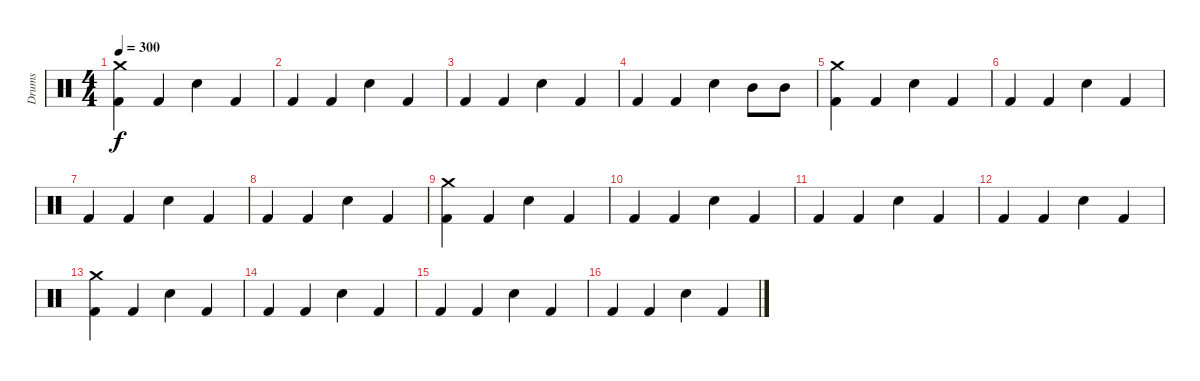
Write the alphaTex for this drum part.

\track ("Drums" "Drums") {instrument percussion}
\staff {score}
\articulation defaults
\ts (4 4)
\tempo 300
\clef neutral
\ks c
("Crash medium (hit)" "Kick (hit) 2").4{dy f} "Kick (hit) 2".4 "Snare (hit) 2".4 "Kick (hit) 2".4 |
"Kick (hit) 2".4 "Kick (hit) 2".4 "Snare (hit) 2".4 "Kick (hit) 2".4 |
"Kick (hit) 2".4 "Kick (hit) 2".4 "Snare (hit) 2".4 "Kick (hit) 2".4 |
"Kick (hit) 2".4 "Kick (hit) 2".4 "Snare (hit) 2".4 "Mid Tom (hit)".8 "Mid Tom (hit)".8 |
("Crash medium (hit)" "Kick (hit) 2").4 "Kick (hit) 2".4 "Snare (hit) 2".4 "Kick (hit) 2".4 |
"Kick (hit) 2".4 "Kick (hit) 2".4 "Snare (hit) 2".4 "Kick (hit) 2".4 |
"Kick (hit) 2".4 "Kick (hit) 2".4 "Snare (hit) 2".4 "Kick (hit) 2".4 |
"Kick (hit) 2".4 "Kick (hit) 2".4 "Snare (hit) 2".4 "Kick (hit) 2".4 |
("Crash medium (hit)" "Kick (hit) 2").4 "Kick (hit) 2".4 "Snare (hit) 2".4 "Kick (hit) 2".4 |
"Kick (hit) 2".4 "Kick (hit) 2".4 "Snare (hit) 2".4 "Kick (hit) 2".4 |
"Kick (hit) 2".4 "Kick (hit) 2".4 "Snare (hit) 2".4 "Kick (hit) 2".4 |
"Kick (hit) 2".4 "Kick (hit) 2".4 "Snare (hit) 2".4 "Kick (hit) 2".4 |
("Crash medium (hit)" "Kick (hit) 2").4 "Kick (hit) 2".4 "Snare (hit) 2".4 "Kick (hit) 2".4 |
"Kick (hit) 2".4 "Kick (hit) 2".4 "Snare (hit) 2".4 "Kick (hit) 2".4 |
"Kick (hit) 2".4 "Kick (hit) 2".4 "Snare (hit) 2".4 "Kick (hit) 2".4 |
"Kick (hit) 2".4 "Kick (hit) 2".4 "Snare (hit) 2".4 "Kick (hit) 2".4
